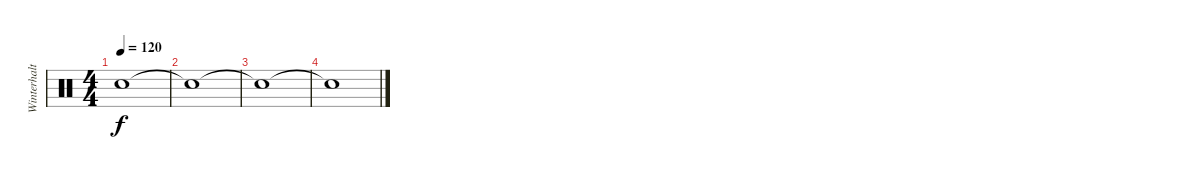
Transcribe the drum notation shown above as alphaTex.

\track ("Winterhalten" "Winterhalt") {instrument percussion}
\staff {score}
\articulation defaults
\ts (4 4)
\tempo 120
\clef neutral
\ks c "Snare (hit)"{t}.1{dy f}
|
"Snare (hit)"{t}.1 |
"Snare (hit)"{t}.1 |
"Snare (hit)"{t}.1
